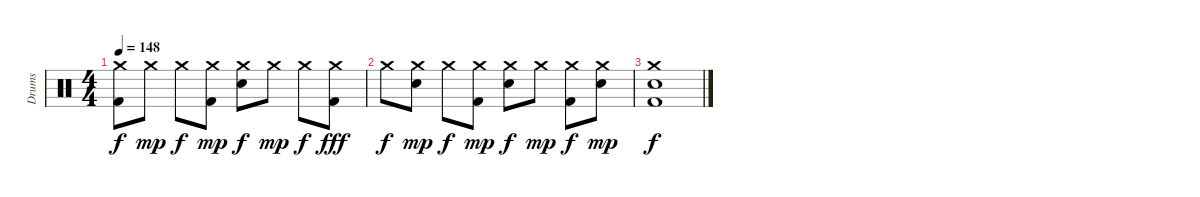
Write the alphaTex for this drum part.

\track ("Drums" "Drums") {instrument percussion}
\staff {score}
\articulation defaults
\ts (4 4)
\tempo 148
\clef neutral
\ks c
("Crash medium (hit)" "Kick (hit) 2").8{dy f} "Crash medium (hit)".8{dy mp} "Crash medium (hit)".8{dy f} ("Crash medium (hit)" "Kick (hit) 2").8{dy mp} ("Crash medium (hit)" "Snare (hit) 2").8{dy f} "Crash medium (hit)".8{dy mp} "Crash medium (hit)".8{dy f} ("Crash medium (hit)" "Kick (hit) 2").8{dy fff} |
"Crash medium (hit)".8{dy f} ("Crash medium (hit)" "Snare (hit) 2").8{dy mp} "Crash medium (hit)".8{dy f} ("Crash medium (hit)" "Kick (hit) 2").8{dy mp} ("Crash medium (hit)" "Snare (hit) 2").8{dy f} "Crash medium (hit)".8{dy mp} ("Crash medium (hit)" "Kick (hit) 2").8{dy f} ("Crash medium (hit)" "Snare (hit) 2").8{dy mp} |
("Crash medium (hit)" "Snare (hit) 2" "Kick (hit) 2").1{dy f}
